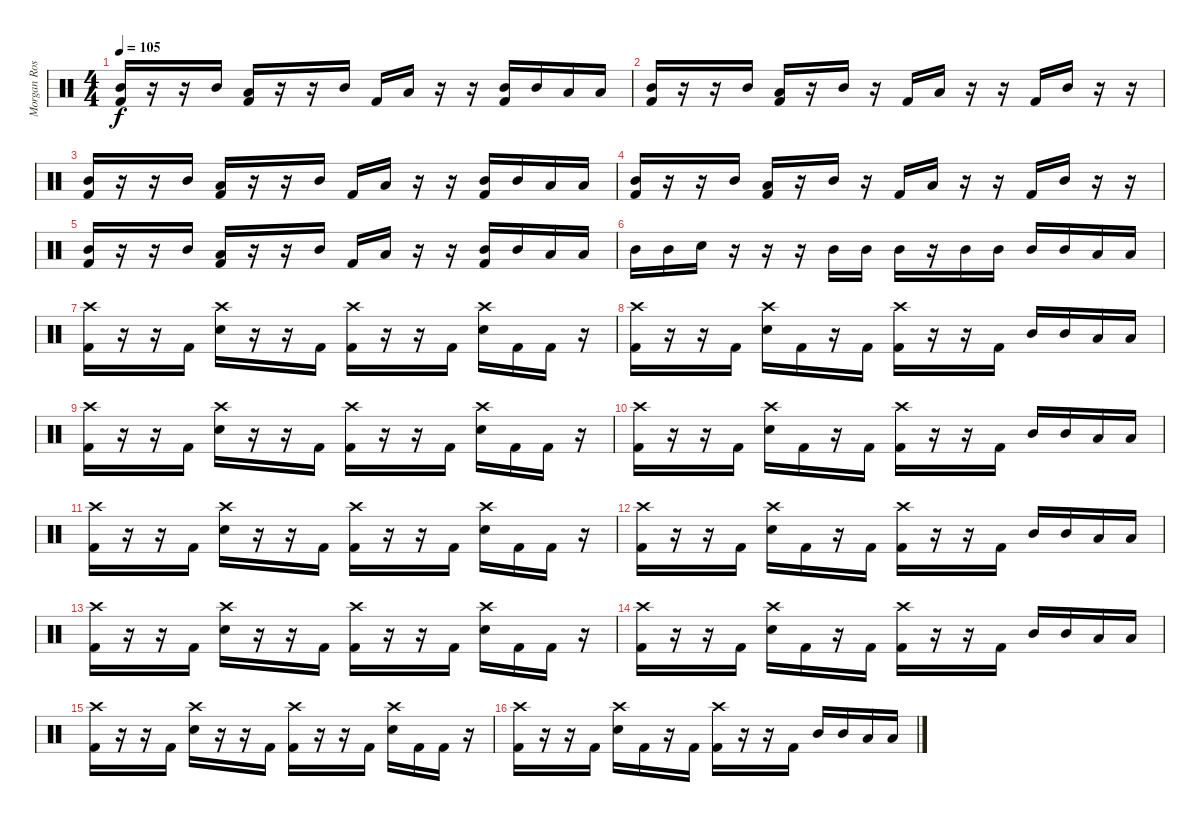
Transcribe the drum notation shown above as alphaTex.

\track ("Morgan Rose - Drums" "Morgan Ros") {instrument percussion}
\staff {score}
\articulation defaults
\ts (4 4)
\tempo 105
\clef neutral
\ks c
("Kick (hit) 2" "Mid Tom (hit)").16{dy f} r.16 r.16 "Mid Tom (hit)".16 ("Kick (hit) 2" "Low Tom (hit)").16 r.16 r.16 "Mid Tom (hit)".16 "Kick (hit) 2".16 "Low Tom (hit)".16 r.16 r.16 ("Kick (hit) 2" "Mid Tom (hit)").16 "Mid Tom (hit)".16 "Low Tom (hit)".16 "Low Tom (hit)".16 |
("Kick (hit) 2" "Mid Tom (hit)").16 r.16 r.16 "Mid Tom (hit)".16 ("Kick (hit) 2" "Low Tom (hit)").16 r.16 "Mid Tom (hit)".16 r.16 "Kick (hit) 2".16 "Low Tom (hit)".16 r.16 r.16 "Kick (hit) 2".16 "Mid Tom (hit)".16 r.16 r.16 |
("Kick (hit) 2" "Mid Tom (hit)").16 r.16 r.16 "Mid Tom (hit)".16 ("Kick (hit) 2" "Low Tom (hit)").16 r.16 r.16 "Mid Tom (hit)".16 "Kick (hit) 2".16 "Low Tom (hit)".16 r.16 r.16 ("Kick (hit) 2" "Mid Tom (hit)").16 "Mid Tom (hit)".16 "Low Tom (hit)".16 "Low Tom (hit)".16 |
("Kick (hit) 2" "Mid Tom (hit)").16 r.16 r.16 "Mid Tom (hit)".16 ("Kick (hit) 2" "Low Tom (hit)").16 r.16 "Mid Tom (hit)".16 r.16 "Kick (hit) 2".16 "Low Tom (hit)".16 r.16 r.16 "Kick (hit) 2".16 "Mid Tom (hit)".16 r.16 r.16 |
("Kick (hit) 2" "Mid Tom (hit)").16 r.16 r.16 "Mid Tom (hit)".16 ("Kick (hit) 2" "Low Tom (hit)").16 r.16 r.16 "Mid Tom (hit)".16 "Kick (hit) 2".16 "Low Tom (hit)".16 r.16 r.16 ("Kick (hit) 2" "Mid Tom (hit)").16 "Mid Tom (hit)".16 "Low Tom (hit)".16 "Low Tom (hit)".16 |
"Mid Tom (hit)".16 "Mid Tom (hit)".16 "Electric Snare (hit)".16 r.16 r.16 r.16 "Mid Tom (hit)".16 "Mid Tom (hit)".16 "Mid Tom (hit)".16 r.16 "Mid Tom (hit)".16 "Mid Tom (hit)".16 "Mid Tom (hit)".16 "Mid Tom (hit)".16 "Low Tom (hit)".16 "Low Tom (hit)".16 |
("Kick (hit) 2" "Crash high (hit)").16 r.16 r.16 "Kick (hit) 2".16 ("Snare (hit) 2" "Crash high (hit)").16 r.16 r.16 "Kick (hit) 2".16 ("Kick (hit) 2" "Crash high (hit)").16 r.16 r.16 "Kick (hit) 2".16 ("Snare (hit) 2" "Crash high (hit)").16 "Kick (hit) 2".16 "Kick (hit) 2".16 r.16 |
("Kick (hit) 2" "Crash high (hit)").16 r.16 r.16 "Kick (hit) 2".16 ("Snare (hit) 2" "Crash high (hit)").16 "Kick (hit) 2".16 r.16 "Kick (hit) 2".16 ("Kick (hit) 2" "Crash high (hit)").16 r.16 r.16 "Kick (hit) 2".16 "Mid Tom (hit)".16 "Mid Tom (hit)".16 "Low Tom (hit)".16 "Low Tom (hit)".16 |
("Kick (hit) 2" "Crash high (hit)").16 r.16 r.16 "Kick (hit) 2".16 ("Snare (hit) 2" "Crash high (hit)").16 r.16 r.16 "Kick (hit) 2".16 ("Kick (hit) 2" "Crash high (hit)").16 r.16 r.16 "Kick (hit) 2".16 ("Snare (hit) 2" "Crash high (hit)").16 "Kick (hit) 2".16 "Kick (hit) 2".16 r.16 |
("Kick (hit) 2" "Crash high (hit)").16 r.16 r.16 "Kick (hit) 2".16 ("Snare (hit) 2" "Crash high (hit)").16 "Kick (hit) 2".16 r.16 "Kick (hit) 2".16 ("Kick (hit) 2" "Crash high (hit)").16 r.16 r.16 "Kick (hit) 2".16 "Mid Tom (hit)".16 "Mid Tom (hit)".16 "Low Tom (hit)".16 "Low Tom (hit)".16 |
("Kick (hit) 2" "Crash high (hit)").16 r.16 r.16 "Kick (hit) 2".16 ("Snare (hit) 2" "Crash high (hit)").16 r.16 r.16 "Kick (hit) 2".16 ("Kick (hit) 2" "Crash high (hit)").16 r.16 r.16 "Kick (hit) 2".16 ("Snare (hit) 2" "Crash high (hit)").16 "Kick (hit) 2".16 "Kick (hit) 2".16 r.16 |
("Kick (hit) 2" "Crash high (hit)").16 r.16 r.16 "Kick (hit) 2".16 ("Snare (hit) 2" "Crash high (hit)").16 "Kick (hit) 2".16 r.16 "Kick (hit) 2".16 ("Kick (hit) 2" "Crash high (hit)").16 r.16 r.16 "Kick (hit) 2".16 "Mid Tom (hit)".16 "Mid Tom (hit)".16 "Low Tom (hit)".16 "Low Tom (hit)".16 |
("Kick (hit) 2" "Crash high (hit)").16 r.16 r.16 "Kick (hit) 2".16 ("Snare (hit) 2" "Crash high (hit)").16 r.16 r.16 "Kick (hit) 2".16 ("Kick (hit) 2" "Crash high (hit)").16 r.16 r.16 "Kick (hit) 2".16 ("Snare (hit) 2" "Crash high (hit)").16 "Kick (hit) 2".16 "Kick (hit) 2".16 r.16 |
("Kick (hit) 2" "Crash high (hit)").16 r.16 r.16 "Kick (hit) 2".16 ("Snare (hit) 2" "Crash high (hit)").16 "Kick (hit) 2".16 r.16 "Kick (hit) 2".16 ("Kick (hit) 2" "Crash high (hit)").16 r.16 r.16 "Kick (hit) 2".16 "Mid Tom (hit)".16 "Mid Tom (hit)".16 "Low Tom (hit)".16 "Low Tom (hit)".16 |
("Kick (hit) 2" "Crash high (hit)").16 r.16 r.16 "Kick (hit) 2".16 ("Snare (hit) 2" "Crash high (hit)").16 r.16 r.16 "Kick (hit) 2".16 ("Kick (hit) 2" "Crash high (hit)").16 r.16 r.16 "Kick (hit) 2".16 ("Snare (hit) 2" "Crash high (hit)").16 "Kick (hit) 2".16 "Kick (hit) 2".16 r.16 |
("Kick (hit) 2" "Crash high (hit)").16 r.16 r.16 "Kick (hit) 2".16 ("Snare (hit) 2" "Crash high (hit)").16 "Kick (hit) 2".16 r.16 "Kick (hit) 2".16 ("Kick (hit) 2" "Crash high (hit)").16 r.16 r.16 "Kick (hit) 2".16 "Mid Tom (hit)".16 "Mid Tom (hit)".16 "Low Tom (hit)".16 "Low Tom (hit)".16
